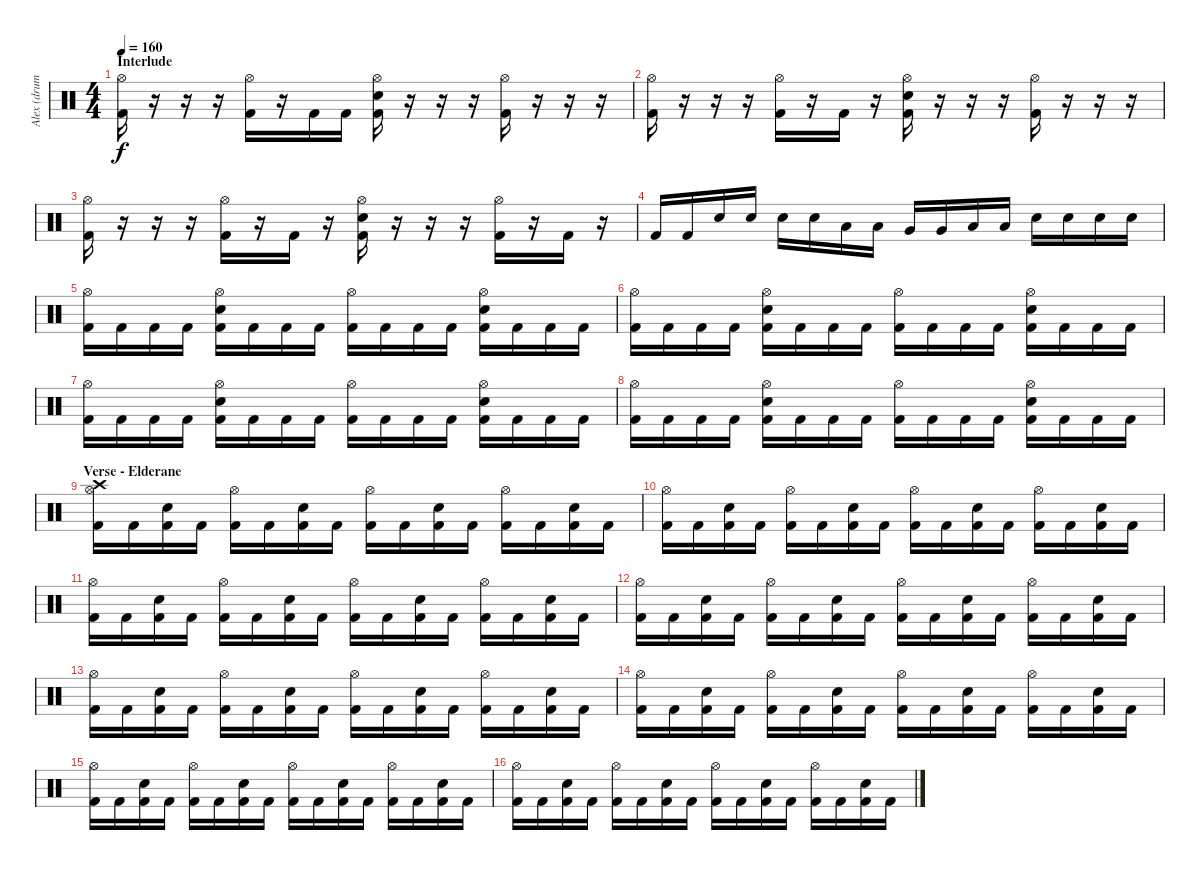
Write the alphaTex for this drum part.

\track ("Alex (drums)" "Alex (drum") {instrument percussion}
\staff {score}
\articulation defaults
\ts (4 4)
\section ("" "Interlude")
\tempo 160
\clef neutral
\ks c
("Hi-Hat (open)" "Kick (hit) 2").16{dy f} r.16 r.16 r.16 ("Hi-Hat (open)" "Kick (hit) 2").16 r.16 "Kick (hit) 2".16 "Kick (hit) 2".16 ("Hi-Hat (open)" "Snare (hit) 2" "Kick (hit) 2").16 r.16 r.16 r.16 ("Hi-Hat (open)" "Kick (hit) 2").16 r.16 r.16 r.16 |
("Hi-Hat (open)" "Kick (hit) 2").16 r.16 r.16 r.16 ("Hi-Hat (open)" "Kick (hit) 2").16 r.16 "Kick (hit) 2".16 r.16 ("Hi-Hat (open)" "Snare (hit) 2" "Kick (hit) 2").16 r.16 r.16 r.16 ("Hi-Hat (open)" "Kick (hit) 2").16 r.16 r.16 r.16 |
("Hi-Hat (open)" "Kick (hit) 2").16 r.16 r.16 r.16 ("Hi-Hat (open)" "Kick (hit) 2").16 r.16 "Kick (hit) 2".16 r.16 ("Hi-Hat (open)" "Snare (hit) 2" "Kick (hit) 2").16 r.16 r.16 r.16 ("Hi-Hat (open)" "Kick (hit) 2").16 r.16 "Kick (hit) 2".16 r.16 |
"Kick (hit) 2".16 "Kick (hit) 2".16 "Snare (hit) 2".16 "Snare (hit) 2".16 "Snare (hit) 2".16 "Snare (hit) 2".16 "Low Tom (hit)".16 "Low Tom (hit)".16 "Very Low Tom (hit)".16 "Very Low Tom (hit)".16 "Low Tom (hit)".16 "Low Tom (hit)".16 "Snare (hit) 2".16 "Snare (hit) 2".16 "Snare (hit) 2".16 "Snare (hit) 2".16 |
("Hi-Hat (open)" "Kick (hit) 2").16 "Kick (hit) 2".16 "Kick (hit) 2".16 "Kick (hit) 2".16 ("Hi-Hat (open)" "Snare (hit) 2" "Kick (hit) 2").16 "Kick (hit) 2".16 "Kick (hit) 2".16 "Kick (hit) 2".16 ("Hi-Hat (open)" "Kick (hit) 2").16 "Kick (hit) 2".16 "Kick (hit) 2".16 "Kick (hit) 2".16 ("Hi-Hat (open)" "Snare (hit) 2" "Kick (hit) 2").16 "Kick (hit) 2".16 "Kick (hit) 2".16 "Kick (hit) 2".16 |
("Hi-Hat (open)" "Kick (hit) 2").16 "Kick (hit) 2".16 "Kick (hit) 2".16 "Kick (hit) 2".16 ("Hi-Hat (open)" "Snare (hit) 2" "Kick (hit) 2").16 "Kick (hit) 2".16 "Kick (hit) 2".16 "Kick (hit) 2".16 ("Hi-Hat (open)" "Kick (hit) 2").16 "Kick (hit) 2".16 "Kick (hit) 2".16 "Kick (hit) 2".16 ("Hi-Hat (open)" "Snare (hit) 2" "Kick (hit) 2").16 "Kick (hit) 2".16 "Kick (hit) 2".16 "Kick (hit) 2".16 |
("Hi-Hat (open)" "Kick (hit) 2").16 "Kick (hit) 2".16 "Kick (hit) 2".16 "Kick (hit) 2".16 ("Hi-Hat (open)" "Snare (hit) 2" "Kick (hit) 2").16 "Kick (hit) 2".16 "Kick (hit) 2".16 "Kick (hit) 2".16 ("Hi-Hat (open)" "Kick (hit) 2").16 "Kick (hit) 2".16 "Kick (hit) 2".16 "Kick (hit) 2".16 ("Hi-Hat (open)" "Snare (hit) 2" "Kick (hit) 2").16 "Kick (hit) 2".16 "Kick (hit) 2".16 "Kick (hit) 2".16 |
("Hi-Hat (open)" "Kick (hit) 2").16 "Kick (hit) 2".16 "Kick (hit) 2".16 "Kick (hit) 2".16 ("Hi-Hat (open)" "Snare (hit) 2" "Kick (hit) 2").16 "Kick (hit) 2".16 "Kick (hit) 2".16 "Kick (hit) 2".16 ("Hi-Hat (open)" "Kick (hit) 2").16 "Kick (hit) 2".16 "Kick (hit) 2".16 "Kick (hit) 2".16 ("Hi-Hat (open)" "Snare (hit) 2" "Kick (hit) 2").16 "Kick (hit) 2".16 "Kick (hit) 2".16 "Kick (hit) 2".16 |
\section ("" "Verse - Elderane")
("Hi-Hat (open)" "Kick (hit) 2" "Crash high (hit)").16 "Kick (hit) 2".16 ("Snare (hit) 2" "Kick (hit) 2").16 "Kick (hit) 2".16 ("Hi-Hat (open)" "Kick (hit) 2").16 "Kick (hit) 2".16 ("Snare (hit) 2" "Kick (hit) 2").16 "Kick (hit) 2".16 ("Hi-Hat (open)" "Kick (hit) 2").16 "Kick (hit) 2".16 ("Snare (hit) 2" "Kick (hit) 2").16 "Kick (hit) 2".16 ("Hi-Hat (open)" "Kick (hit) 2").16 "Kick (hit) 2".16 ("Snare (hit) 2" "Kick (hit) 2").16 "Kick (hit) 2".16 |
("Hi-Hat (open)" "Kick (hit) 2").16 "Kick (hit) 2".16 ("Snare (hit) 2" "Kick (hit) 2").16 "Kick (hit) 2".16 ("Hi-Hat (open)" "Kick (hit) 2").16 "Kick (hit) 2".16 ("Snare (hit) 2" "Kick (hit) 2").16 "Kick (hit) 2".16 ("Hi-Hat (open)" "Kick (hit) 2").16 "Kick (hit) 2".16 ("Snare (hit) 2" "Kick (hit) 2").16 "Kick (hit) 2".16 ("Hi-Hat (open)" "Kick (hit) 2").16 "Kick (hit) 2".16 ("Snare (hit) 2" "Kick (hit) 2").16 "Kick (hit) 2".16 |
("Hi-Hat (open)" "Kick (hit) 2").16 "Kick (hit) 2".16 ("Snare (hit) 2" "Kick (hit) 2").16 "Kick (hit) 2".16 ("Hi-Hat (open)" "Kick (hit) 2").16 "Kick (hit) 2".16 ("Snare (hit) 2" "Kick (hit) 2").16 "Kick (hit) 2".16 ("Hi-Hat (open)" "Kick (hit) 2").16 "Kick (hit) 2".16 ("Snare (hit) 2" "Kick (hit) 2").16 "Kick (hit) 2".16 ("Hi-Hat (open)" "Kick (hit) 2").16 "Kick (hit) 2".16 ("Snare (hit) 2" "Kick (hit) 2").16 "Kick (hit) 2".16 |
("Hi-Hat (open)" "Kick (hit) 2").16 "Kick (hit) 2".16 ("Snare (hit) 2" "Kick (hit) 2").16 "Kick (hit) 2".16 ("Hi-Hat (open)" "Kick (hit) 2").16 "Kick (hit) 2".16 ("Snare (hit) 2" "Kick (hit) 2").16 "Kick (hit) 2".16 ("Hi-Hat (open)" "Kick (hit) 2").16 "Kick (hit) 2".16 ("Snare (hit) 2" "Kick (hit) 2").16 "Kick (hit) 2".16 ("Hi-Hat (open)" "Kick (hit) 2").16 "Kick (hit) 2".16 ("Snare (hit) 2" "Kick (hit) 2").16 "Kick (hit) 2".16 |
("Hi-Hat (open)" "Kick (hit) 2").16 "Kick (hit) 2".16 ("Snare (hit) 2" "Kick (hit) 2").16 "Kick (hit) 2".16 ("Hi-Hat (open)" "Kick (hit) 2").16 "Kick (hit) 2".16 ("Snare (hit) 2" "Kick (hit) 2").16 "Kick (hit) 2".16 ("Hi-Hat (open)" "Kick (hit) 2").16 "Kick (hit) 2".16 ("Snare (hit) 2" "Kick (hit) 2").16 "Kick (hit) 2".16 ("Hi-Hat (open)" "Kick (hit) 2").16 "Kick (hit) 2".16 ("Snare (hit) 2" "Kick (hit) 2").16 "Kick (hit) 2".16 |
("Hi-Hat (open)" "Kick (hit) 2").16 "Kick (hit) 2".16 ("Snare (hit) 2" "Kick (hit) 2").16 "Kick (hit) 2".16 ("Hi-Hat (open)" "Kick (hit) 2").16 "Kick (hit) 2".16 ("Snare (hit) 2" "Kick (hit) 2").16 "Kick (hit) 2".16 ("Hi-Hat (open)" "Kick (hit) 2").16 "Kick (hit) 2".16 ("Snare (hit) 2" "Kick (hit) 2").16 "Kick (hit) 2".16 ("Hi-Hat (open)" "Kick (hit) 2").16 "Kick (hit) 2".16 ("Snare (hit) 2" "Kick (hit) 2").16 "Kick (hit) 2".16 |
("Hi-Hat (open)" "Kick (hit) 2").16 "Kick (hit) 2".16 ("Snare (hit) 2" "Kick (hit) 2").16 "Kick (hit) 2".16 ("Hi-Hat (open)" "Kick (hit) 2").16 "Kick (hit) 2".16 ("Snare (hit) 2" "Kick (hit) 2").16 "Kick (hit) 2".16 ("Hi-Hat (open)" "Kick (hit) 2").16 "Kick (hit) 2".16 ("Snare (hit) 2" "Kick (hit) 2").16 "Kick (hit) 2".16 ("Hi-Hat (open)" "Kick (hit) 2").16 "Kick (hit) 2".16 ("Snare (hit) 2" "Kick (hit) 2").16 "Kick (hit) 2".16 |
("Hi-Hat (open)" "Kick (hit) 2").16 "Kick (hit) 2".16 ("Snare (hit) 2" "Kick (hit) 2").16 "Kick (hit) 2".16 ("Hi-Hat (open)" "Kick (hit) 2").16 "Kick (hit) 2".16 ("Snare (hit) 2" "Kick (hit) 2").16 "Kick (hit) 2".16 ("Hi-Hat (open)" "Kick (hit) 2").16 "Kick (hit) 2".16 ("Snare (hit) 2" "Kick (hit) 2").16 "Kick (hit) 2".16 ("Hi-Hat (open)" "Kick (hit) 2").16 "Kick (hit) 2".16 ("Snare (hit) 2" "Kick (hit) 2").16 "Kick (hit) 2".16
